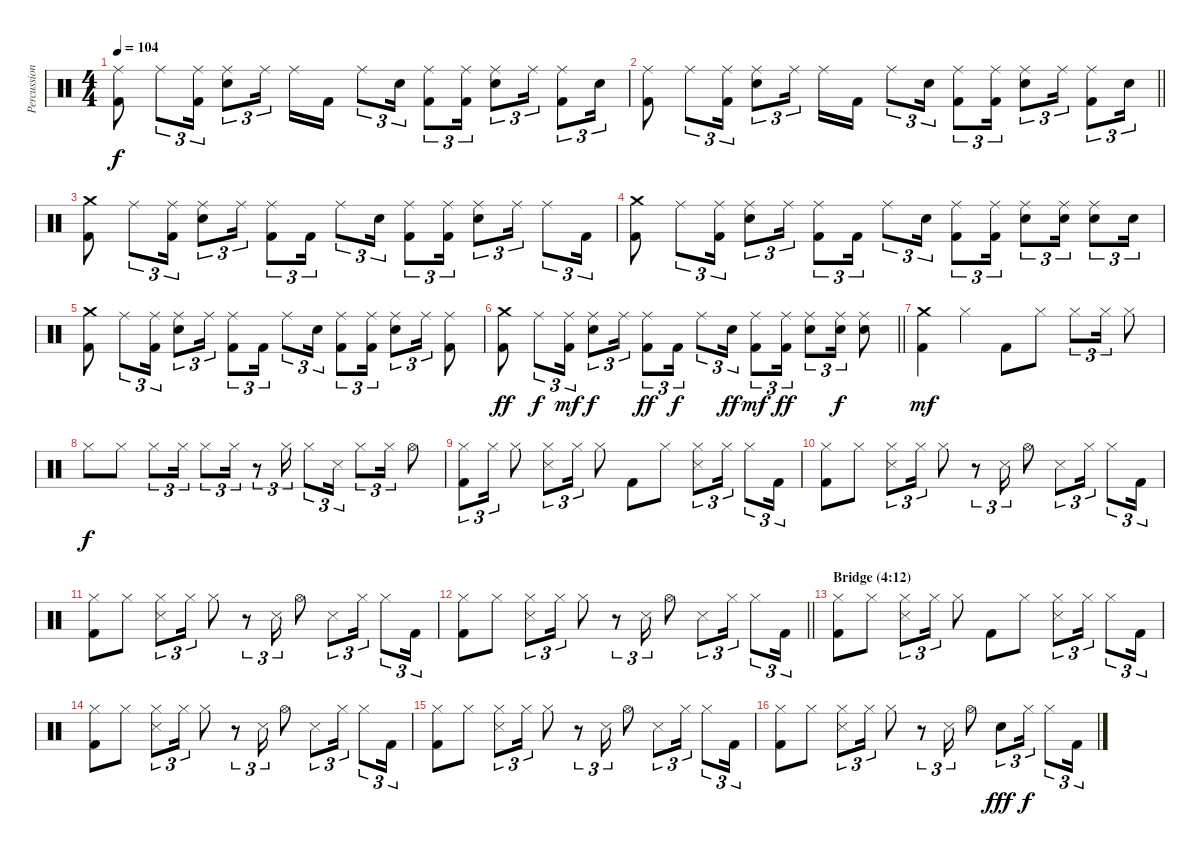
\track ("Percussion" "Percussion") {instrument percussion}
\staff {score}
\articulation defaults
\ts (4 4)
\tempo 104
\clef neutral
\ks c
("Ride (middle)" "Kick (hit) 2").8{dy f} "Ride (middle)".8{tu (3 2)} ("Ride (middle)" "Kick (hit) 2").16{tu (3 2)} ("Ride (middle)" "Electric Snare (hit)").8{tu (3 2)} "Ride (middle)".16{tu (3 2) beam splitsecondary} "Ride (middle)".16 "Kick (hit) 2".16 "Ride (middle)".8{tu (3 2)} "Electric Snare (hit)".16{tu (3 2)} ("Ride (middle)" "Kick (hit) 2").8{tu (3 2)} ("Ride (middle)" "Kick (hit) 2").16{tu (3 2)} ("Ride (middle)" "Electric Snare (hit)").8{tu (3 2)} "Ride (middle)".16{tu (3 2)} ("Ride (middle)" "Kick (hit) 2").8{tu (3 2)} "Electric Snare (hit)".16{tu (3 2)} |
\barLineRight lightlight
("Ride (middle)" "Kick (hit) 2").8 "Ride (middle)".8{tu (3 2)} ("Ride (middle)" "Kick (hit) 2").16{tu (3 2)} ("Ride (middle)" "Electric Snare (hit)").8{tu (3 2)} "Ride (middle)".16{tu (3 2) beam splitsecondary} "Ride (middle)".16 "Kick (hit) 2".16 "Ride (middle)".8{tu (3 2)} "Electric Snare (hit)".16{tu (3 2)} ("Ride (middle)" "Kick (hit) 2").8{tu (3 2)} ("Ride (middle)" "Kick (hit) 2").16{tu (3 2)} ("Ride (middle)" "Electric Snare (hit)").8{tu (3 2)} "Ride (middle)".16{tu (3 2)} ("Ride (middle)" "Kick (hit) 2").8{tu (3 2)} "Electric Snare (hit)".16{tu (3 2)} |
("Crash medium (hit)" "Kick (hit) 2").8 "Ride (middle)".8{tu (3 2)} ("Ride (middle)" "Kick (hit) 2").16{tu (3 2)} ("Ride (middle)" "Electric Snare (hit)").8{tu (3 2)} "Ride (middle)".16{tu (3 2)} ("Ride (middle)" "Kick (hit) 2").8{tu (3 2)} "Kick (hit) 2".16{tu (3 2)} "Ride (middle)".8{tu (3 2)} "Electric Snare (hit)".16{tu (3 2)} ("Ride (middle)" "Kick (hit) 2").8{tu (3 2)} ("Ride (middle)" "Kick (hit) 2").16{tu (3 2)} ("Ride (middle)" "Electric Snare (hit)").8{tu (3 2)} "Ride (middle)".16{tu (3 2)} "Ride (middle)".8{tu (3 2)} "Kick (hit) 2".16{tu (3 2)} |
("Crash medium (hit)" "Kick (hit) 2").8 "Ride (middle)".8{tu (3 2)} ("Ride (middle)" "Kick (hit) 2").16{tu (3 2)} ("Ride (middle)" "Electric Snare (hit)").8{tu (3 2)} "Ride (middle)".16{tu (3 2)} ("Ride (middle)" "Kick (hit) 2").8{tu (3 2)} "Kick (hit) 2".16{tu (3 2)} "Ride (middle)".8{tu (3 2)} "Electric Snare (hit)".16{tu (3 2)} ("Ride (middle)" "Kick (hit) 2").8{tu (3 2)} ("Ride (middle)" "Kick (hit) 2").16{tu (3 2)} ("Ride (middle)" "Electric Snare (hit)").8{tu (3 2)} ("Ride (middle)" "Electric Snare (hit)").16{tu (3 2)} ("Ride (middle)" "Electric Snare (hit)").8{tu (3 2)} "Electric Snare (hit)".16{tu (3 2)} |
("Crash medium (hit)" "Kick (hit) 2").8{volume 10} "Ride (middle)".8{tu (3 2)} ("Ride (middle)" "Kick (hit) 2").16{tu (3 2)} ("Ride (middle)" "Electric Snare (hit)").8{tu (3 2)} "Ride (middle)".16{tu (3 2)} ("Ride (middle)" "Kick (hit) 2").8{tu (3 2)} "Kick (hit) 2".16{tu (3 2)} "Ride (middle)".8{tu (3 2)} "Electric Snare (hit)".16{tu (3 2)} ("Ride (middle)" "Kick (hit) 2").8{tu (3 2)} ("Ride (middle)" "Kick (hit) 2").16{tu (3 2)} ("Ride (middle)" "Electric Snare (hit)").8{tu (3 2)} "Ride (middle)".16{tu (3 2)} ("Ride (middle)" "Kick (hit) 2").8 |
\barLineRight lightlight
("Crash medium (hit)" "Kick (hit) 2").8{dy ff} "Ride (middle)".8{tu (3 2) dy f} ("Ride (middle)" "Kick (hit) 2").16{tu (3 2) dy mf} ("Ride (middle)" "Electric Snare (hit)").8{tu (3 2) dy f} "Ride (middle)".16{tu (3 2)} ("Ride (middle)" "Kick (hit) 2").8{tu (3 2) dy ff} "Kick (hit) 2".16{tu (3 2) dy f} "Ride (middle)".8{tu (3 2)} "Electric Snare (hit)".16{tu (3 2) dy ff} ("Ride (middle)" "Kick (hit) 2").8{tu (3 2) dy mf} ("Ride (middle)" "Kick (hit) 2").16{tu (3 2) dy ff} ("Ride (middle)" "Electric Snare (hit)").8{tu (3 2)} ("Ride (middle)" "Electric Snare (hit)").16{tu (3 2) dy f} ("Ride (middle)" "Electric Snare (hit)").8 |
("Crash medium (hit)" "Kick (hit) 2").4{dy mf volume 12} "Hi-Hat (closed)".4 "Kick (hit) 2".8 "Hi-Hat (closed)".8 "Hi-Hat (closed)".8{tu (3 2)} "Hi-Hat (closed)".16{tu (3 2)} "Hi-Hat (closed)".8 |
"Hi-Hat (closed)".8{dy f} "Hi-Hat (closed)".8 "Hi-Hat (closed)".8{tu (3 2)} "Hi-Hat (closed)".16{tu (3 2)} "Hi-Hat (closed)".8{tu (3 2)} "Hi-Hat (closed)".16{tu (3 2)} r.8{tu (3 2)} "Hi-Hat (closed)".16{tu (3 2)} "Hi-Hat (closed)".8{tu (3 2)} "Snare (side stick) 3".16{tu (3 2)} "Hi-Hat (closed)".8{tu (3 2)} "Hi-Hat (closed)".16{tu (3 2)} "Hi-Hat (open)".8 |
("Hi-Hat (closed)" "Kick (hit) 2").8{tu (3 2)} "Hi-Hat (closed)".16{tu (3 2)} "Hi-Hat (closed)".8 ("Hi-Hat (closed)" "Snare (side stick) 3").8{tu (3 2)} "Hi-Hat (closed)".16{tu (3 2)} "Hi-Hat (closed)".8 "Kick (hit) 2".8 "Hi-Hat (closed)".8 ("Hi-Hat (closed)" "Snare (side stick) 3").8{tu (3 2)} "Hi-Hat (closed)".16{tu (3 2)} "Hi-Hat (closed)".8{tu (3 2)} "Kick (hit) 2".16{tu (3 2)} |
("Hi-Hat (closed)" "Kick (hit) 2").8 "Hi-Hat (closed)".8 ("Hi-Hat (closed)" "Snare (side stick) 3").8{tu (3 2)} "Hi-Hat (closed)".16{tu (3 2)} "Hi-Hat (closed)".8 r.8{tu (3 2)} "Snare (side stick) 3".16{tu (3 2)} "Hi-Hat (open)".8 "Snare (side stick) 3".8{tu (3 2)} "Hi-Hat (closed)".16{tu (3 2)} "Hi-Hat (closed)".8{tu (3 2)} "Kick (hit) 2".16{tu (3 2)} |
("Hi-Hat (closed)" "Kick (hit) 2").8 "Hi-Hat (closed)".8 ("Hi-Hat (closed)" "Snare (side stick) 3").8{tu (3 2)} "Hi-Hat (closed)".16{tu (3 2)} "Hi-Hat (closed)".8 r.8{tu (3 2)} "Snare (side stick) 3".16{tu (3 2)} "Hi-Hat (open)".8 "Snare (side stick) 3".8{tu (3 2)} "Hi-Hat (closed)".16{tu (3 2)} "Hi-Hat (closed)".8{tu (3 2)} "Kick (hit) 2".16{tu (3 2)} |
\barLineRight lightlight
("Hi-Hat (closed)" "Kick (hit) 2").8 "Hi-Hat (closed)".8 ("Hi-Hat (closed)" "Snare (side stick) 3").8{tu (3 2)} "Hi-Hat (closed)".16{tu (3 2)} "Hi-Hat (closed)".8 r.8{tu (3 2)} "Snare (side stick) 3".16{tu (3 2)} "Hi-Hat (open)".8 "Snare (side stick) 3".8{tu (3 2)} "Hi-Hat (closed)".16{tu (3 2)} "Hi-Hat (closed)".8{tu (3 2)} "Kick (hit) 2".16{tu (3 2)} |
\section ("" "Bridge (4:12)")
("Hi-Hat (closed)" "Kick (hit) 2").8 "Hi-Hat (closed)".8 ("Hi-Hat (closed)" "Snare (side stick) 3").8{tu (3 2)} "Hi-Hat (closed)".16{tu (3 2)} "Hi-Hat (closed)".8 "Kick (hit) 2".8 "Hi-Hat (closed)".8 ("Hi-Hat (closed)" "Snare (side stick) 3").8{tu (3 2)} "Hi-Hat (closed)".16{tu (3 2)} "Hi-Hat (closed)".8{tu (3 2)} "Kick (hit) 2".16{tu (3 2)} |
("Hi-Hat (closed)" "Kick (hit) 2").8 "Hi-Hat (closed)".8 ("Hi-Hat (closed)" "Snare (side stick) 3").8{tu (3 2)} "Hi-Hat (closed)".16{tu (3 2)} "Hi-Hat (closed)".8 r.8{tu (3 2)} "Snare (side stick) 3".16{tu (3 2)} "Hi-Hat (open)".8 "Snare (side stick) 3".8{tu (3 2)} "Hi-Hat (closed)".16{tu (3 2)} "Hi-Hat (closed)".8{tu (3 2)} "Kick (hit) 2".16{tu (3 2)} |
("Hi-Hat (closed)" "Kick (hit) 2").8 "Hi-Hat (closed)".8 ("Hi-Hat (closed)" "Snare (side stick) 3").8{tu (3 2)} "Hi-Hat (closed)".16{tu (3 2)} "Hi-Hat (closed)".8 r.8{tu (3 2)} "Snare (side stick) 3".16{tu (3 2)} "Hi-Hat (open)".8 "Snare (side stick) 3".8{tu (3 2)} "Hi-Hat (closed)".16{tu (3 2)} "Hi-Hat (closed)".8{tu (3 2)} "Kick (hit) 2".16{tu (3 2)} |
("Hi-Hat (closed)" "Kick (hit) 2").8 "Hi-Hat (closed)".8 ("Hi-Hat (closed)" "Snare (side stick) 3").8{tu (3 2)} "Hi-Hat (closed)".16{tu (3 2)} "Hi-Hat (closed)".8 r.8{tu (3 2)} "Snare (side stick) 3".16{tu (3 2)} "Hi-Hat (open)".8 "Electric Snare (hit)".8{tu (3 2) dy fff} "Hi-Hat (closed)".16{tu (3 2) dy f} "Hi-Hat (closed)".8{tu (3 2)} "Kick (hit) 2".16{tu (3 2)}
